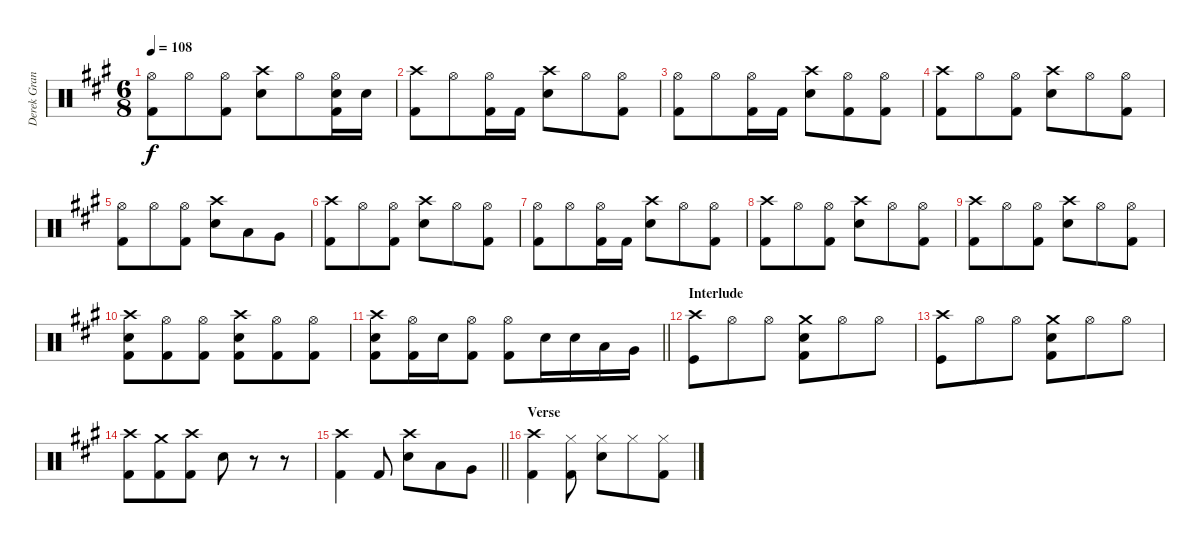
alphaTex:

\track ("Derek Grant - Drums" "Derek Gran") {instrument percussion}
\staff {score}
\articulation defaults
\ts (6 8)
\tempo 108
\clef neutral
\ks a
("Kick (hit) 2" "Hi-Hat (open)").8{dy f} "Hi-Hat (open)".8 ("Kick (hit) 2" "Hi-Hat (open)").8 ("Snare (hit) 2" "Crash high (hit)").8 "Hi-Hat (open)".8 ("Hi-Hat (open)" "Kick (hit) 2" "Snare (hit) 2").16 "Snare (hit) 2".16 |
("Crash high (hit)" "Kick (hit) 2").8 "Hi-Hat (open)".8 ("Kick (hit) 2" "Hi-Hat (open)").16 "Kick (hit) 2".16 ("Snare (hit) 2" "Crash high (hit)").8 "Hi-Hat (open)".8 ("Kick (hit) 2" "Hi-Hat (open)").8 |
("Kick (hit) 2" "Hi-Hat (open)").8 "Hi-Hat (open)".8 ("Kick (hit) 2" "Hi-Hat (open)").16 "Kick (hit) 2".16 ("Snare (hit) 2" "Crash high (hit)").8 ("Hi-Hat (open)" "Kick (hit) 2").8 ("Hi-Hat (open)" "Kick (hit) 2").8 |
("Crash high (hit)" "Kick (hit) 2").8 "Hi-Hat (open)".8 ("Kick (hit) 2" "Hi-Hat (open)").8 ("Snare (hit) 2" "Crash high (hit)").8 "Hi-Hat (open)".8 ("Kick (hit) 2" "Hi-Hat (open)").8 |
("Kick (hit) 2" "Hi-Hat (open)").8 "Hi-Hat (open)".8 ("Kick (hit) 2" "Hi-Hat (open)").8 ("Snare (hit) 2" "Crash high (hit)").8 "Low Tom (hit)".8 "Very Low Tom (hit)".8 |
("Crash high (hit)" "Kick (hit) 2").8 "Hi-Hat (open)".8 ("Kick (hit) 2" "Hi-Hat (open)").8 ("Snare (hit) 2" "Crash high (hit)").8 "Hi-Hat (open)".8 ("Kick (hit) 2" "Hi-Hat (open)").8 |
("Kick (hit) 2" "Hi-Hat (open)").8 "Hi-Hat (open)".8 ("Kick (hit) 2" "Hi-Hat (open)").16 "Kick (hit) 2".16 ("Snare (hit) 2" "Crash high (hit)").8 "Hi-Hat (open)".8 ("Kick (hit) 2" "Hi-Hat (open)").8 |
("Crash high (hit)" "Kick (hit) 2").8 "Hi-Hat (open)".8 ("Kick (hit) 2" "Hi-Hat (open)").8 ("Snare (hit) 2" "Crash high (hit)").8 "Hi-Hat (open)".8 ("Kick (hit) 2" "Hi-Hat (open)").8 |
("Crash high (hit)" "Kick (hit) 2").8 "Hi-Hat (open)".8 ("Kick (hit) 2" "Hi-Hat (open)").8 ("Snare (hit) 2" "Crash high (hit)").8 "Hi-Hat (open)".8 ("Kick (hit) 2" "Hi-Hat (open)").8 |
("Crash high (hit)" "Snare (hit) 2" "Kick (hit) 2").8 ("Kick (hit) 2" "Hi-Hat (open)").8 ("Kick (hit) 2" "Hi-Hat (open)").8 ("Crash high (hit)" "Snare (hit) 2" "Kick (hit) 2").8 ("Kick (hit) 2" "Hi-Hat (open)").8 ("Kick (hit) 2" "Hi-Hat (open)").8 |
\barLineRight lightlight
("Crash high (hit)" "Snare (hit) 2" "Kick (hit) 2").8 ("Kick (hit) 2" "Hi-Hat (open)").16 "Snare (hit) 2".16 ("Kick (hit) 2" "Hi-Hat (open)").8 ("Hi-Hat (open)" "Kick (hit) 2").8 "Snare (hit) 2".16 "Snare (hit) 2".16 "Low Tom (hit)".16 "Very Low Tom (hit)".16 |
\section ("" "Interlude")
("Crash high (hit)" "Kick (hit)").8 "Hi-Hat (open)".8 "Hi-Hat (open)".8 ("Crash medium (hit)" "Snare (hit) 2" "Kick (hit) 2").8 "Hi-Hat (open)".8 "Hi-Hat (open)".8 |
("Crash high (hit)" "Kick (hit)").8 "Hi-Hat (open)".8 "Hi-Hat (open)".8 ("Crash medium (hit)" "Snare (hit) 2" "Kick (hit) 2").8 "Hi-Hat (open)".8 "Hi-Hat (open)".8 |
("Crash high (hit)" "Kick (hit) 2").8 ("Crash medium (hit)" "Kick (hit) 2").8 ("Crash high (hit)" "Kick (hit) 2").8 "Snare (hit) 2".8 r.8 r.8 |
\barLineRight lightlight
("Crash high (hit)" "Kick (hit) 2").4 "Kick (hit) 2".8 ("Snare (hit) 2" "Crash high (hit)").8 "Low Tom (hit)".8 "Very Low Tom (hit)".8 |
\section ("" "Verse")
("Crash high (hit)" "Kick (hit) 2").4 ("Kick (hit) 2" "Hi-Hat (closed)").8 ("Snare (hit) 2" "Hi-Hat (closed)").8 "Hi-Hat (closed)".8 ("Hi-Hat (closed)" "Kick (hit) 2").8
